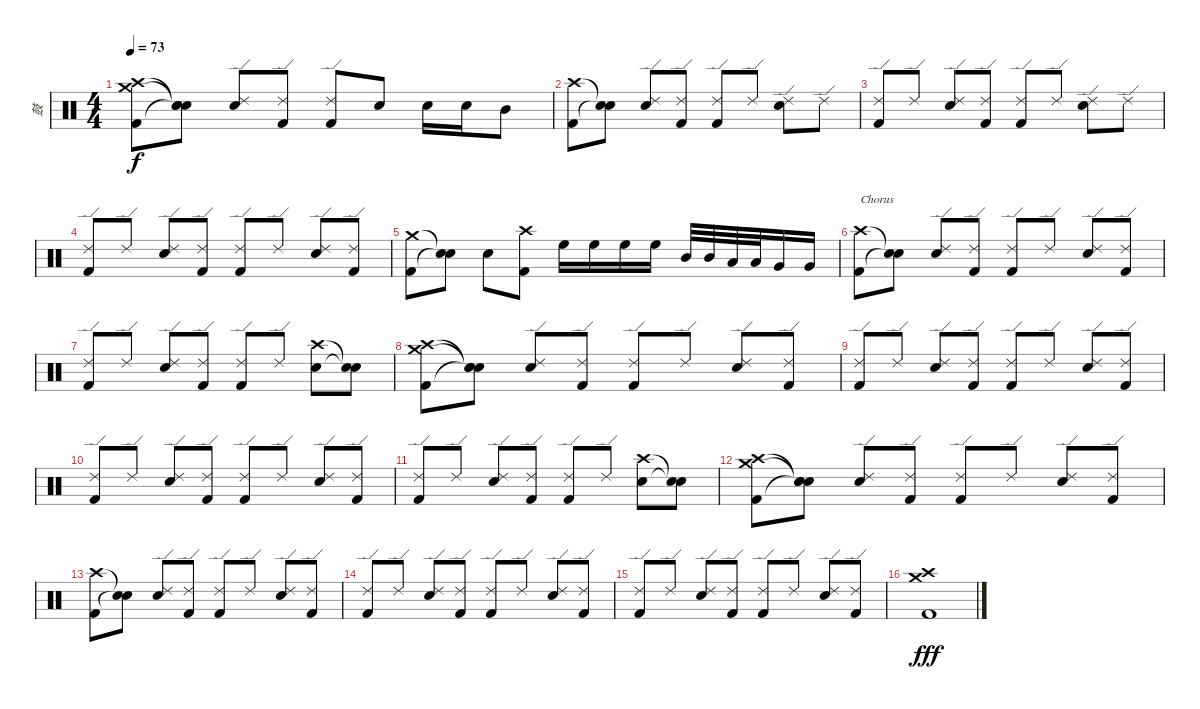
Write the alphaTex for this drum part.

\track ("鼓" "鼓") {instrument percussion}
\staff {score}
\articulation defaults
\ts (4 4)
\tempo 73
\clef neutral
\ks c
("Crash high (hit)" "Crash medium (hit)" "Kick (hit) 2").8{dy f} ("Snare (hit)"{t} "Snare (hit)"{t} "Snare (hit)"{t}).8 ("Ride (edge) 2" "Electric Snare (hit)").8 ("Ride (edge) 2" "Kick (hit) 2").8 ("Ride (edge) 2" "Kick (hit) 2").8 "Electric Snare (hit)".8 "Electric Snare (hit)".16 "Electric Snare (hit)".16 "Mid Tom (hit)".8 |
("Crash high (hit)" "Kick (hit) 2").8 ("Snare (hit)"{t} "Snare (hit)"{t}).8 ("Ride (edge) 2" "Electric Snare (hit)").8 ("Ride (edge) 2" "Kick (hit) 2").8 ("Ride (edge) 2" "Kick (hit) 2").8 "Ride (edge) 2".8 ("Ride (edge) 2" "Electric Snare (hit)").8 "Ride (edge) 2".8 |
("Ride (edge) 2" "Kick (hit) 2").8 "Ride (edge) 2".8 ("Ride (edge) 2" "Electric Snare (hit)").8 ("Ride (edge) 2" "Kick (hit) 2").8 ("Ride (edge) 2" "Kick (hit) 2").8 "Ride (edge) 2".8 ("Ride (edge) 2" "Electric Snare (hit)").8 "Ride (edge) 2".8 |
("Ride (edge) 2" "Kick (hit) 2").8 "Ride (edge) 2".8 ("Ride (edge) 2" "Electric Snare (hit)").8 ("Ride (edge) 2" "Kick (hit) 2").8 ("Ride (edge) 2" "Kick (hit) 2").8 "Ride (edge) 2".8 ("Ride (edge) 2" "Electric Snare (hit)").8 ("Ride (edge) 2" "Kick (hit) 2").8 |
("Crash medium (hit)" "Kick (hit) 2").8 ("Snare (hit)"{t} "Snare (hit)"{t}).8 "Electric Snare (hit)".8 ("Crash high (hit)" "Kick (hit) 2").8 "High Floor Tom (hit)".16 "High Floor Tom (hit)".16 "High Floor Tom (hit)".16 "High Floor Tom (hit)".16 "Mid Tom (hit)".32 "Mid Tom (hit)".32 "Low Tom (hit)".32 "Low Tom (hit)".32 "Very Low Tom (hit)".16 "Very Low Tom (hit)".16 |
("Crash high (hit)" "Kick (hit) 2").8{txt "Chorus"} ("Snare (hit)"{t} "Snare (hit)"{t}).8 ("Ride (edge) 2" "Electric Snare (hit)").8 ("Ride (edge) 2" "Kick (hit) 2").8 ("Ride (edge) 2" "Kick (hit) 2").8 "Ride (edge) 2".8 ("Ride (edge) 2" "Electric Snare (hit)").8 ("Ride (edge) 2" "Kick (hit) 2").8 |
("Ride (edge) 2" "Kick (hit) 2").8 "Ride (edge) 2".8 ("Ride (edge) 2" "Electric Snare (hit)").8 ("Ride (edge) 2" "Kick (hit) 2").8 ("Ride (edge) 2" "Kick (hit) 2").8 "Ride (edge) 2".8 ("Crash high (hit)" "Electric Snare (hit)").8 ("Snare (hit)"{t} "Snare (hit)"{t}).8 |
("Crash high (hit)" "Crash medium (hit)" "Kick (hit) 2").8 ("Snare (hit)"{t} "Snare (hit)"{t} "Snare (hit)"{t}).8 ("Ride (edge) 2" "Electric Snare (hit)").8 ("Ride (edge) 2" "Kick (hit) 2").8 ("Ride (edge) 2" "Kick (hit) 2").8 "Ride (edge) 2".8 ("Ride (edge) 2" "Electric Snare (hit)").8 ("Ride (edge) 2" "Kick (hit) 2").8 |
("Ride (edge) 2" "Kick (hit) 2").8 "Ride (edge) 2".8 ("Ride (edge) 2" "Electric Snare (hit)").8 ("Ride (edge) 2" "Kick (hit) 2").8 ("Ride (edge) 2" "Kick (hit) 2").8 "Ride (edge) 2".8 ("Ride (edge) 2" "Electric Snare (hit)").8 ("Ride (edge) 2" "Kick (hit) 2").8 |
("Ride (edge) 2" "Kick (hit) 2").8 "Ride (edge) 2".8 ("Ride (edge) 2" "Electric Snare (hit)").8 ("Ride (edge) 2" "Kick (hit) 2").8 ("Ride (edge) 2" "Kick (hit) 2").8 "Ride (edge) 2".8 ("Ride (edge) 2" "Electric Snare (hit)").8 ("Ride (edge) 2" "Kick (hit) 2").8 |
("Ride (edge) 2" "Kick (hit) 2").8 "Ride (edge) 2".8 ("Ride (edge) 2" "Electric Snare (hit)").8 ("Ride (edge) 2" "Kick (hit) 2").8 ("Ride (edge) 2" "Kick (hit) 2").8 "Ride (edge) 2".8 ("Crash high (hit)" "Electric Snare (hit)").8 ("Snare (hit)"{t} "Snare (hit)"{t}).8 |
("Crash high (hit)" "Crash medium (hit)" "Kick (hit) 2").8 ("Snare (hit)"{t} "Snare (hit)"{t} "Snare (hit)"{t}).8 ("Ride (edge) 2" "Electric Snare (hit)").8 ("Ride (edge) 2" "Kick (hit) 2").8 ("Ride (edge) 2" "Kick (hit) 2").8 "Ride (edge) 2".8 ("Ride (edge) 2" "Electric Snare (hit)").8 ("Ride (edge) 2" "Kick (hit) 2").8 |
("Crash high (hit)" "Kick (hit) 2").8 ("Snare (hit)"{t} "Snare (hit)"{t}).8 ("Ride (edge) 2" "Electric Snare (hit)").8 ("Ride (edge) 2" "Kick (hit) 2").8 ("Ride (edge) 2" "Kick (hit) 2").8 "Ride (edge) 2".8 ("Ride (edge) 2" "Electric Snare (hit)").8 ("Ride (edge) 2" "Kick (hit) 2").8 |
("Ride (edge) 2" "Kick (hit) 2").8 "Ride (edge) 2".8 ("Ride (edge) 2" "Electric Snare (hit)").8 ("Ride (edge) 2" "Kick (hit) 2").8 ("Ride (edge) 2" "Kick (hit) 2").8 "Ride (edge) 2".8 ("Ride (edge) 2" "Electric Snare (hit)").8 ("Ride (edge) 2" "Kick (hit) 2").8 |
("Ride (edge) 2" "Kick (hit) 2").8 "Ride (edge) 2".8 ("Ride (edge) 2" "Electric Snare (hit)").8 ("Ride (edge) 2" "Kick (hit) 2").8 ("Ride (edge) 2" "Kick (hit) 2").8 "Ride (edge) 2".8 ("Ride (edge) 2" "Electric Snare (hit)").8 ("Ride (edge) 2" "Kick (hit) 2").8 |
("Crash high (hit)" "Crash medium (hit)" "Kick (hit) 2").1{dy fff}
